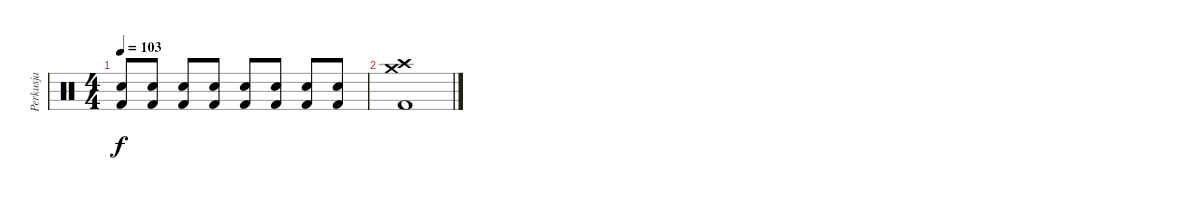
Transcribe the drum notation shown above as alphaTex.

\track ("Perkusja" "Perkusja") {instrument percussion}
\staff {score}
\articulation defaults
\ts (4 4)
\tempo 103
\clef neutral
\ks c
("Snare (hit) 2" "Kick (hit) 2").8{dy f} ("Snare (hit) 2" "Kick (hit) 2").8 ("Snare (hit) 2" "Kick (hit) 2").8 ("Snare (hit) 2" "Kick (hit) 2").8 ("Snare (hit) 2" "Kick (hit) 2").8 ("Snare (hit) 2" "Kick (hit) 2").8 ("Snare (hit) 2" "Kick (hit) 2").8 ("Snare (hit) 2" "Kick (hit) 2").8 |
("Crash medium (hit)" "Crash high (hit)" "Kick (hit) 2").1
